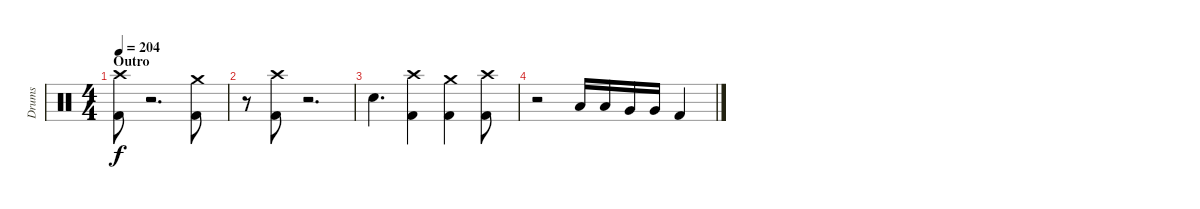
\track ("Drums" "Drums") {instrument percussion}
\staff {score}
\articulation defaults
\ts (4 4)
\section ("" "Outro")
\tempo 204
\clef neutral
\ks c
("Crash high (hit)" "Kick (hit) 2").8{dy f} r.2{d} ("Crash medium (hit)" "Kick (hit) 2").8 |
r.8 ("Crash high (hit)" "Kick (hit) 2").8 r.2{d} |
"Snare (hit) 2".4{d} ("Crash high (hit)" "Kick (hit) 2").4 ("Crash medium (hit)" "Kick (hit) 2").4 ("Crash high (hit)" "Kick (hit) 2").8 |
r.2 "Low Tom (hit)".16 "Low Tom (hit)".16 "Very Low Tom (hit)".16 "Very Low Tom (hit)".16 "Kick (hit) 2".4
